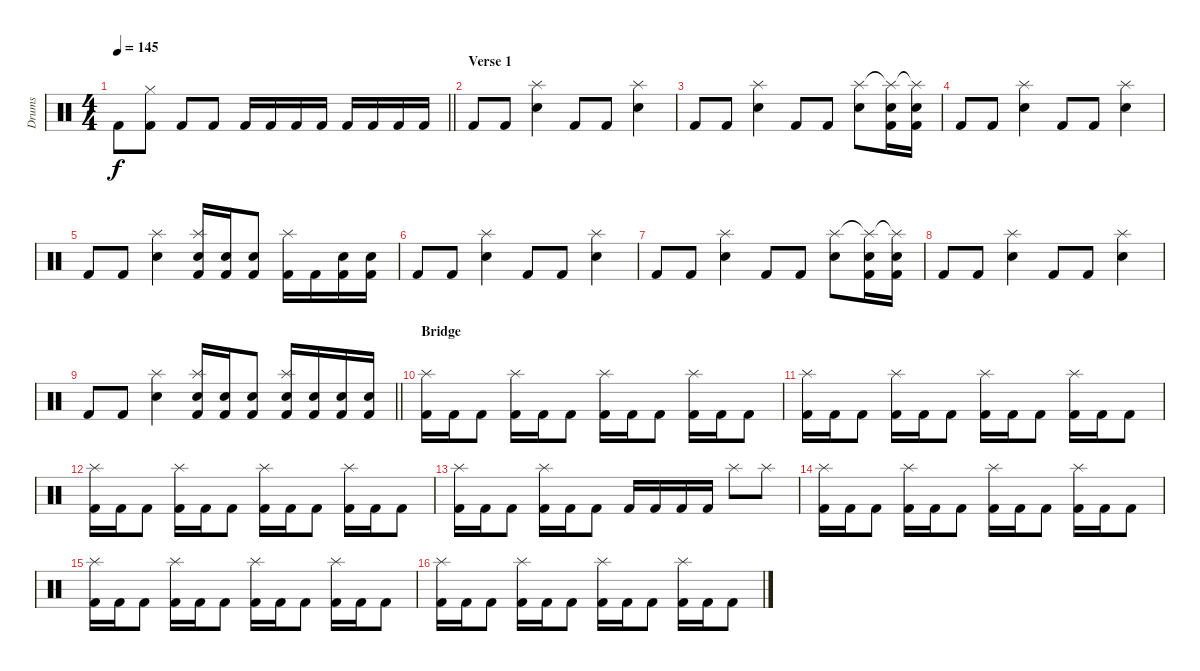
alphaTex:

\track ("Drums" "Drums") {instrument percussion}
\staff {score}
\articulation defaults
\ts (4 4)
\tempo 145
\clef neutral
\barLineRight lightlight
\ks c "Kick (hit) 2"{t}.8{dy f}
("Hi-Hat (closed)" "Kick (hit) 2").8 "Kick (hit) 2".8 "Kick (hit) 2".8 "Kick (hit) 2".16 "Kick (hit) 2".16 "Kick (hit) 2".16 "Kick (hit) 2".16 "Kick (hit) 2".16 "Kick (hit) 2".16 "Kick (hit) 2".16 "Kick (hit) 2".16 |
\section ("" "Verse 1")
"Kick (hit) 2".8 "Kick (hit) 2".8 ("Splash (hit)" "Electric Snare (hit)").4 "Kick (hit) 2".8 "Kick (hit) 2".8 ("Splash (hit)" "Electric Snare (hit)").4 |
"Kick (hit) 2".8 "Kick (hit) 2".8 ("Splash (hit)" "Electric Snare (hit)").4 "Kick (hit) 2".8 "Kick (hit) 2".8 ("Splash (hit)" "Electric Snare (hit)").8 ("Splash (hit)"{t} "Electric Snare (hit)" "Kick (hit) 2").16 ("Splash (hit)"{t} "Electric Snare (hit)" "Kick (hit) 2").16 |
"Kick (hit) 2".8 "Kick (hit) 2".8 ("Splash (hit)" "Electric Snare (hit)").4 "Kick (hit) 2".8 "Kick (hit) 2".8 ("Splash (hit)" "Electric Snare (hit)").4 |
"Kick (hit) 2".8 "Kick (hit) 2".8 ("Splash (hit)" "Electric Snare (hit)").4 ("Splash (hit)" "Electric Snare (hit)" "Kick (hit) 2").16 ("Electric Snare (hit)" "Kick (hit) 2").16 ("Electric Snare (hit)" "Kick (hit) 2").8 ("Splash (hit)" "Kick (hit) 2").16 "Kick (hit) 2".16 ("Electric Snare (hit)" "Kick (hit) 2").16 ("Electric Snare (hit)" "Kick (hit) 2").16 |
"Kick (hit) 2".8 "Kick (hit) 2".8 ("Splash (hit)" "Electric Snare (hit)").4 "Kick (hit) 2".8 "Kick (hit) 2".8 ("Splash (hit)" "Electric Snare (hit)").4 |
"Kick (hit) 2".8 "Kick (hit) 2".8 ("Splash (hit)" "Electric Snare (hit)").4 "Kick (hit) 2".8 "Kick (hit) 2".8 ("Splash (hit)" "Electric Snare (hit)").8 ("Splash (hit)"{t} "Electric Snare (hit)" "Kick (hit) 2").16 ("Splash (hit)"{t} "Electric Snare (hit)" "Kick (hit) 2").16 |
"Kick (hit) 2".8 "Kick (hit) 2".8 ("Splash (hit)" "Electric Snare (hit)").4 "Kick (hit) 2".8 "Kick (hit) 2".8 ("Splash (hit)" "Electric Snare (hit)").4 |
\barLineRight lightlight "Kick (hit) 2".8 "Kick (hit) 2".8
("Splash (hit)" "Electric Snare (hit)").4 ("Splash (hit)" "Electric Snare (hit)" "Kick (hit) 2").16 ("Electric Snare (hit)" "Kick (hit) 2").16 ("Electric Snare (hit)" "Kick (hit) 2").8 ("Splash (hit)" "Electric Snare (hit)" "Kick (hit) 2").16 ("Electric Snare (hit)" "Kick (hit) 2").16 ("Electric Snare (hit)" "Kick (hit) 2").16 ("Electric Snare (hit)" "Kick (hit) 2").16 |
\section ("" "Bridge")
("Splash (hit)" "Kick (hit) 2").16 "Kick (hit) 2".16 "Kick (hit) 2".8 ("Splash (hit)" "Kick (hit) 2").16 "Kick (hit) 2".16 "Kick (hit) 2".8 ("Splash (hit)" "Kick (hit) 2").16 "Kick (hit) 2".16 "Kick (hit) 2".8 ("Splash (hit)" "Kick (hit) 2").16 "Kick (hit) 2".16 "Kick (hit) 2".8 |
("Splash (hit)" "Kick (hit) 2").16 "Kick (hit) 2".16 "Kick (hit) 2".8 ("Splash (hit)" "Kick (hit) 2").16 "Kick (hit) 2".16 "Kick (hit) 2".8 ("Splash (hit)" "Kick (hit) 2").16 "Kick (hit) 2".16 "Kick (hit) 2".8 ("Splash (hit)" "Kick (hit) 2").16 "Kick (hit) 2".16 "Kick (hit) 2".8 |
("Splash (hit)" "Kick (hit) 2").16 "Kick (hit) 2".16 "Kick (hit) 2".8 ("Splash (hit)" "Kick (hit) 2").16 "Kick (hit) 2".16 "Kick (hit) 2".8 ("Splash (hit)" "Kick (hit) 2").16 "Kick (hit) 2".16 "Kick (hit) 2".8 ("Splash (hit)" "Kick (hit) 2").16 "Kick (hit) 2".16 "Kick (hit) 2".8 |
("Splash (hit)" "Kick (hit) 2").16 "Kick (hit) 2".16 "Kick (hit) 2".8 ("Splash (hit)" "Kick (hit) 2").16 "Kick (hit) 2".16 "Kick (hit) 2".8 "Kick (hit) 2".16 "Kick (hit) 2".16 "Kick (hit) 2".16 "Kick (hit) 2".16 "Splash (hit)".8 "Splash (hit)".8 |
("Splash (hit)" "Kick (hit) 2").16 "Kick (hit) 2".16 "Kick (hit) 2".8 ("Splash (hit)" "Kick (hit) 2").16 "Kick (hit) 2".16 "Kick (hit) 2".8 ("Splash (hit)" "Kick (hit) 2").16 "Kick (hit) 2".16 "Kick (hit) 2".8 ("Splash (hit)" "Kick (hit) 2").16 "Kick (hit) 2".16 "Kick (hit) 2".8 |
("Splash (hit)" "Kick (hit) 2").16 "Kick (hit) 2".16 "Kick (hit) 2".8 ("Splash (hit)" "Kick (hit) 2").16 "Kick (hit) 2".16 "Kick (hit) 2".8 ("Splash (hit)" "Kick (hit) 2").16 "Kick (hit) 2".16 "Kick (hit) 2".8 ("Splash (hit)" "Kick (hit) 2").16 "Kick (hit) 2".16 "Kick (hit) 2".8 |
("Splash (hit)" "Kick (hit) 2").16 "Kick (hit) 2".16 "Kick (hit) 2".8 ("Splash (hit)" "Kick (hit) 2").16 "Kick (hit) 2".16 "Kick (hit) 2".8 ("Splash (hit)" "Kick (hit) 2").16 "Kick (hit) 2".16 "Kick (hit) 2".8 ("Splash (hit)" "Kick (hit) 2").16 "Kick (hit) 2".16 "Kick (hit) 2".8
